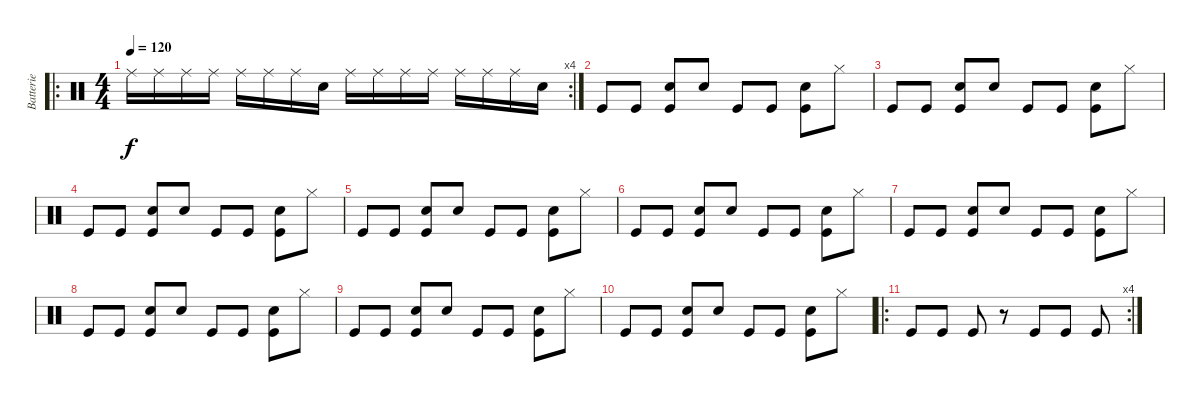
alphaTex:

\track ("Batterie" "Batterie") {instrument percussion}
\staff {score}
\articulation defaults
\ro
\rc 4
\ts (4 4)
\tempo 120
\clef neutral
\ks c "Ride (middle)".16{dy f} "Ride (middle)".16 "Ride (middle)".16 "Ride (middle)".16 "Ride (middle)".16 "Ride (middle)".16 "Ride (middle)".16 "Snare (hit)".16 "Ride (middle)".16 "Ride (middle)".16 "Ride (middle)".16 "Ride (middle)".16 "Ride (middle)".16 "Ride (middle)".16 "Ride (middle)".16 "Snare (hit)".16
|
"Kick (hit)".8 "Kick (hit)".8 ("Snare (hit) 2" "Kick (hit)").8 "Electric Snare (hit)".8 "Kick (hit)".8 "Kick (hit)".8 ("Snare (hit) 2" "Kick (hit)").8 "Hi-Hat (closed)".8 |
"Kick (hit)".8 "Kick (hit)".8 ("Snare (hit) 2" "Kick (hit)").8 "Electric Snare (hit)".8 "Kick (hit)".8 "Kick (hit)".8 ("Snare (hit) 2" "Kick (hit)").8 "Hi-Hat (closed)".8 |
"Kick (hit)".8 "Kick (hit)".8 ("Snare (hit) 2" "Kick (hit)").8 "Electric Snare (hit)".8 "Kick (hit)".8 "Kick (hit)".8 ("Snare (hit) 2" "Kick (hit)").8 "Hi-Hat (closed)".8 |
"Kick (hit)".8 "Kick (hit)".8 ("Snare (hit) 2" "Kick (hit)").8 "Electric Snare (hit)".8 "Kick (hit)".8 "Kick (hit)".8 ("Snare (hit) 2" "Kick (hit)").8 "Hi-Hat (closed)".8 |
"Kick (hit)".8 "Kick (hit)".8 ("Snare (hit) 2" "Kick (hit)").8 "Electric Snare (hit)".8 "Kick (hit)".8 "Kick (hit)".8 ("Snare (hit) 2" "Kick (hit)").8 "Hi-Hat (closed)".8 |
"Kick (hit)".8 "Kick (hit)".8 ("Snare (hit) 2" "Kick (hit)").8 "Electric Snare (hit)".8 "Kick (hit)".8 "Kick (hit)".8 ("Snare (hit) 2" "Kick (hit)").8 "Hi-Hat (closed)".8 |
"Kick (hit)".8 "Kick (hit)".8 ("Snare (hit) 2" "Kick (hit)").8 "Electric Snare (hit)".8 "Kick (hit)".8 "Kick (hit)".8 ("Snare (hit) 2" "Kick (hit)").8 "Hi-Hat (closed)".8 |
"Kick (hit)".8 "Kick (hit)".8 ("Snare (hit) 2" "Kick (hit)").8 "Electric Snare (hit)".8 "Kick (hit)".8 "Kick (hit)".8 ("Snare (hit) 2" "Kick (hit)").8 "Hi-Hat (closed)".8 |
"Kick (hit)".8 "Kick (hit)".8 ("Snare (hit) 2" "Kick (hit)").8 "Electric Snare (hit)".8 "Kick (hit)".8 "Kick (hit)".8 ("Snare (hit) 2" "Kick (hit)").8 "Hi-Hat (closed)".8 |
\ro
\rc 4 "Kick (hit)".8 "Kick (hit)".8 "Kick (hit)".8
r.8 "Kick (hit)".8 "Kick (hit)".8 "Kick (hit)".8
